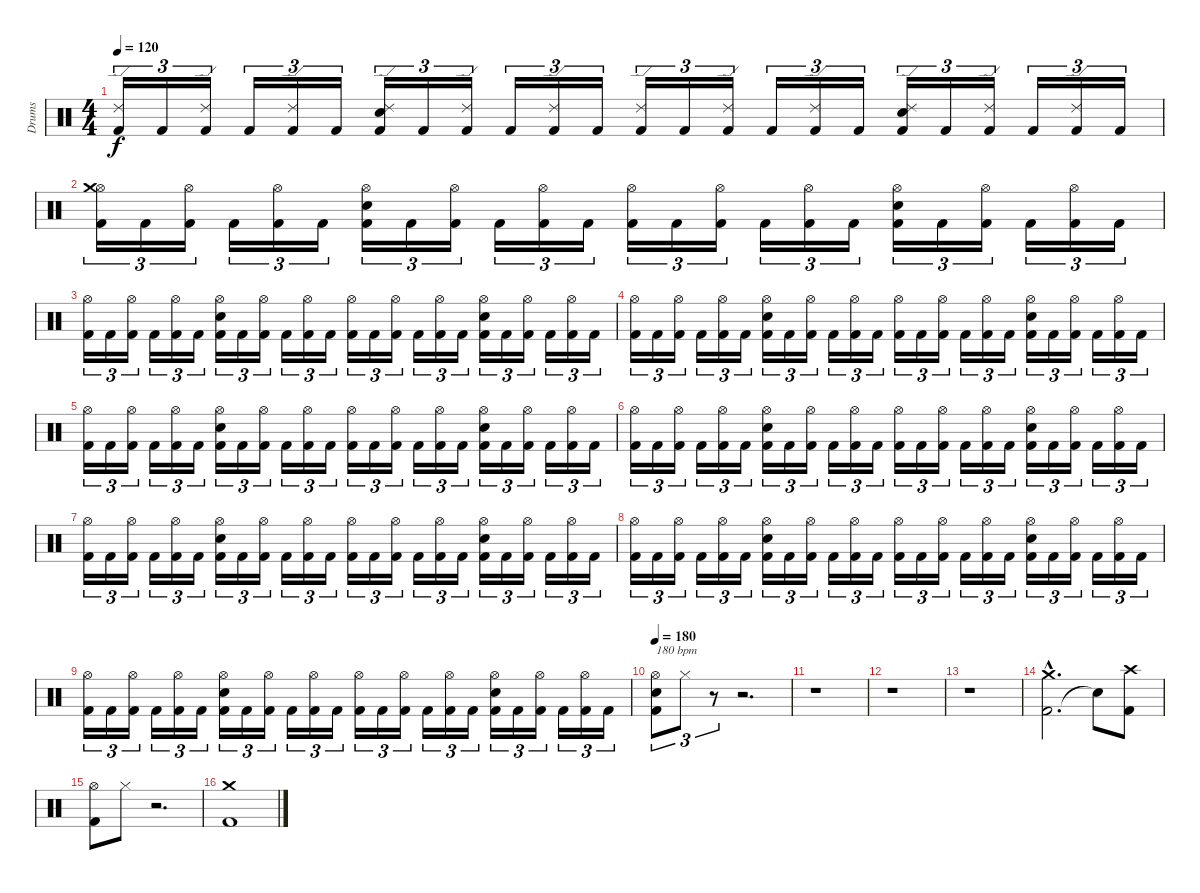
\track ("Drums" "Drums") {instrument percussion}
\staff {score}
\articulation defaults
\ts (4 4)
\tempo 120
\clef neutral
\ks c
("Kick (hit) 2" "Ride (edge) 2").16{tu (3 2) dy f} "Kick (hit) 2".16{tu (3 2)} ("Kick (hit) 2" "Ride (edge) 2").16{tu (3 2)} "Kick (hit) 2".16{tu (3 2)} ("Kick (hit) 2" "Ride (edge) 2").16{tu (3 2)} "Kick (hit) 2".16{tu (3 2)} ("Kick (hit) 2" "Snare (hit) 2" "Ride (edge) 2").16{tu (3 2)} "Kick (hit) 2".16{tu (3 2)} ("Kick (hit) 2" "Ride (edge) 2").16{tu (3 2)} "Kick (hit) 2".16{tu (3 2)} ("Kick (hit) 2" "Ride (edge) 2").16{tu (3 2)} "Kick (hit) 2".16{tu (3 2)} ("Kick (hit) 2" "Ride (edge) 2").16{tu (3 2)} "Kick (hit) 2".16{tu (3 2)} ("Kick (hit) 2" "Ride (edge) 2").16{tu (3 2)} "Kick (hit) 2".16{tu (3 2)} ("Kick (hit) 2" "Ride (edge) 2").16{tu (3 2)} "Kick (hit) 2".16{tu (3 2)} ("Kick (hit) 2" "Snare (hit) 2" "Ride (edge) 2").16{tu (3 2)} "Kick (hit) 2".16{tu (3 2)} ("Kick (hit) 2" "Ride (edge) 2").16{tu (3 2)} "Kick (hit) 2".16{tu (3 2)} ("Kick (hit) 2" "Ride (edge) 2").16{tu (3 2)} "Kick (hit) 2".16{tu (3 2)} |
("Kick (hit) 2" "Hi-Hat (open)" "Crash medium (hit)").16{tu (3 2)} "Kick (hit) 2".16{tu (3 2)} ("Kick (hit) 2" "Hi-Hat (open)").16{tu (3 2)} "Kick (hit) 2".16{tu (3 2)} ("Kick (hit) 2" "Hi-Hat (open)").16{tu (3 2)} "Kick (hit) 2".16{tu (3 2)} ("Kick (hit) 2" "Snare (hit) 2" "Hi-Hat (open)").16{tu (3 2)} "Kick (hit) 2".16{tu (3 2)} ("Kick (hit) 2" "Hi-Hat (open)").16{tu (3 2)} "Kick (hit) 2".16{tu (3 2)} ("Kick (hit) 2" "Hi-Hat (open)").16{tu (3 2)} "Kick (hit) 2".16{tu (3 2)} ("Kick (hit) 2" "Hi-Hat (open)").16{tu (3 2)} "Kick (hit) 2".16{tu (3 2)} ("Kick (hit) 2" "Hi-Hat (open)").16{tu (3 2)} "Kick (hit) 2".16{tu (3 2)} ("Kick (hit) 2" "Hi-Hat (open)").16{tu (3 2)} "Kick (hit) 2".16{tu (3 2)} ("Kick (hit) 2" "Snare (hit) 2" "Hi-Hat (open)").16{tu (3 2)} "Kick (hit) 2".16{tu (3 2)} ("Kick (hit) 2" "Hi-Hat (open)").16{tu (3 2)} "Kick (hit) 2".16{tu (3 2)} ("Kick (hit) 2" "Hi-Hat (open)").16{tu (3 2)} "Kick (hit) 2".16{tu (3 2)} |
("Kick (hit) 2" "Hi-Hat (open)").16{tu (3 2)} "Kick (hit) 2".16{tu (3 2)} ("Kick (hit) 2" "Hi-Hat (open)").16{tu (3 2)} "Kick (hit) 2".16{tu (3 2)} ("Kick (hit) 2" "Hi-Hat (open)").16{tu (3 2)} "Kick (hit) 2".16{tu (3 2)} ("Kick (hit) 2" "Snare (hit) 2" "Hi-Hat (open)").16{tu (3 2)} "Kick (hit) 2".16{tu (3 2)} ("Kick (hit) 2" "Hi-Hat (open)").16{tu (3 2)} "Kick (hit) 2".16{tu (3 2)} ("Kick (hit) 2" "Hi-Hat (open)").16{tu (3 2)} "Kick (hit) 2".16{tu (3 2)} ("Kick (hit) 2" "Hi-Hat (open)").16{tu (3 2)} "Kick (hit) 2".16{tu (3 2)} ("Kick (hit) 2" "Hi-Hat (open)").16{tu (3 2)} "Kick (hit) 2".16{tu (3 2)} ("Kick (hit) 2" "Hi-Hat (open)").16{tu (3 2)} "Kick (hit) 2".16{tu (3 2)} ("Kick (hit) 2" "Snare (hit) 2" "Hi-Hat (open)").16{tu (3 2)} "Kick (hit) 2".16{tu (3 2)} ("Kick (hit) 2" "Hi-Hat (open)").16{tu (3 2)} "Kick (hit) 2".16{tu (3 2)} ("Kick (hit) 2" "Hi-Hat (open)").16{tu (3 2)} "Kick (hit) 2".16{tu (3 2)} |
("Kick (hit) 2" "Hi-Hat (open)").16{tu (3 2)} "Kick (hit) 2".16{tu (3 2)} ("Kick (hit) 2" "Hi-Hat (open)").16{tu (3 2)} "Kick (hit) 2".16{tu (3 2)} ("Kick (hit) 2" "Hi-Hat (open)").16{tu (3 2)} "Kick (hit) 2".16{tu (3 2)} ("Kick (hit) 2" "Snare (hit) 2" "Hi-Hat (open)").16{tu (3 2)} "Kick (hit) 2".16{tu (3 2)} ("Kick (hit) 2" "Hi-Hat (open)").16{tu (3 2)} "Kick (hit) 2".16{tu (3 2)} ("Kick (hit) 2" "Hi-Hat (open)").16{tu (3 2)} "Kick (hit) 2".16{tu (3 2)} ("Kick (hit) 2" "Hi-Hat (open)").16{tu (3 2)} "Kick (hit) 2".16{tu (3 2)} ("Kick (hit) 2" "Hi-Hat (open)").16{tu (3 2)} "Kick (hit) 2".16{tu (3 2)} ("Kick (hit) 2" "Hi-Hat (open)").16{tu (3 2)} "Kick (hit) 2".16{tu (3 2)} ("Kick (hit) 2" "Snare (hit) 2" "Hi-Hat (open)").16{tu (3 2)} "Kick (hit) 2".16{tu (3 2)} ("Kick (hit) 2" "Hi-Hat (open)").16{tu (3 2)} "Kick (hit) 2".16{tu (3 2)} ("Kick (hit) 2" "Hi-Hat (open)").16{tu (3 2)} "Kick (hit) 2".16{tu (3 2)} |
("Kick (hit) 2" "Hi-Hat (open)").16{tu (3 2)} "Kick (hit) 2".16{tu (3 2)} ("Kick (hit) 2" "Hi-Hat (open)").16{tu (3 2)} "Kick (hit) 2".16{tu (3 2)} ("Kick (hit) 2" "Hi-Hat (open)").16{tu (3 2)} "Kick (hit) 2".16{tu (3 2)} ("Kick (hit) 2" "Snare (hit) 2" "Hi-Hat (open)").16{tu (3 2)} "Kick (hit) 2".16{tu (3 2)} ("Kick (hit) 2" "Hi-Hat (open)").16{tu (3 2)} "Kick (hit) 2".16{tu (3 2)} ("Kick (hit) 2" "Hi-Hat (open)").16{tu (3 2)} "Kick (hit) 2".16{tu (3 2)} ("Kick (hit) 2" "Hi-Hat (open)").16{tu (3 2)} "Kick (hit) 2".16{tu (3 2)} ("Kick (hit) 2" "Hi-Hat (open)").16{tu (3 2)} "Kick (hit) 2".16{tu (3 2)} ("Kick (hit) 2" "Hi-Hat (open)").16{tu (3 2)} "Kick (hit) 2".16{tu (3 2)} ("Kick (hit) 2" "Snare (hit) 2" "Hi-Hat (open)").16{tu (3 2)} "Kick (hit) 2".16{tu (3 2)} ("Kick (hit) 2" "Hi-Hat (open)").16{tu (3 2)} "Kick (hit) 2".16{tu (3 2)} ("Kick (hit) 2" "Hi-Hat (open)").16{tu (3 2)} "Kick (hit) 2".16{tu (3 2)} |
("Kick (hit) 2" "Hi-Hat (open)").16{tu (3 2)} "Kick (hit) 2".16{tu (3 2)} ("Kick (hit) 2" "Hi-Hat (open)").16{tu (3 2)} "Kick (hit) 2".16{tu (3 2)} ("Kick (hit) 2" "Hi-Hat (open)").16{tu (3 2)} "Kick (hit) 2".16{tu (3 2)} ("Kick (hit) 2" "Snare (hit) 2" "Hi-Hat (open)").16{tu (3 2)} "Kick (hit) 2".16{tu (3 2)} ("Kick (hit) 2" "Hi-Hat (open)").16{tu (3 2)} "Kick (hit) 2".16{tu (3 2)} ("Kick (hit) 2" "Hi-Hat (open)").16{tu (3 2)} "Kick (hit) 2".16{tu (3 2)} ("Kick (hit) 2" "Hi-Hat (open)").16{tu (3 2)} "Kick (hit) 2".16{tu (3 2)} ("Kick (hit) 2" "Hi-Hat (open)").16{tu (3 2)} "Kick (hit) 2".16{tu (3 2)} ("Kick (hit) 2" "Hi-Hat (open)").16{tu (3 2)} "Kick (hit) 2".16{tu (3 2)} ("Kick (hit) 2" "Snare (hit) 2" "Hi-Hat (open)").16{tu (3 2)} "Kick (hit) 2".16{tu (3 2)} ("Kick (hit) 2" "Hi-Hat (open)").16{tu (3 2)} "Kick (hit) 2".16{tu (3 2)} ("Kick (hit) 2" "Hi-Hat (open)").16{tu (3 2)} "Kick (hit) 2".16{tu (3 2)} |
("Kick (hit) 2" "Hi-Hat (open)").16{tu (3 2)} "Kick (hit) 2".16{tu (3 2)} ("Kick (hit) 2" "Hi-Hat (open)").16{tu (3 2)} "Kick (hit) 2".16{tu (3 2)} ("Kick (hit) 2" "Hi-Hat (open)").16{tu (3 2)} "Kick (hit) 2".16{tu (3 2)} ("Kick (hit) 2" "Snare (hit) 2" "Hi-Hat (open)").16{tu (3 2)} "Kick (hit) 2".16{tu (3 2)} ("Kick (hit) 2" "Hi-Hat (open)").16{tu (3 2)} "Kick (hit) 2".16{tu (3 2)} ("Kick (hit) 2" "Hi-Hat (open)").16{tu (3 2)} "Kick (hit) 2".16{tu (3 2)} ("Kick (hit) 2" "Hi-Hat (open)").16{tu (3 2)} "Kick (hit) 2".16{tu (3 2)} ("Kick (hit) 2" "Hi-Hat (open)").16{tu (3 2)} "Kick (hit) 2".16{tu (3 2)} ("Kick (hit) 2" "Hi-Hat (open)").16{tu (3 2)} "Kick (hit) 2".16{tu (3 2)} ("Kick (hit) 2" "Snare (hit) 2" "Hi-Hat (open)").16{tu (3 2)} "Kick (hit) 2".16{tu (3 2)} ("Kick (hit) 2" "Hi-Hat (open)").16{tu (3 2)} "Kick (hit) 2".16{tu (3 2)} ("Kick (hit) 2" "Hi-Hat (open)").16{tu (3 2)} "Kick (hit) 2".16{tu (3 2)} |
("Kick (hit) 2" "Hi-Hat (open)").16{tu (3 2)} "Kick (hit) 2".16{tu (3 2)} ("Kick (hit) 2" "Hi-Hat (open)").16{tu (3 2)} "Kick (hit) 2".16{tu (3 2)} ("Kick (hit) 2" "Hi-Hat (open)").16{tu (3 2)} "Kick (hit) 2".16{tu (3 2)} ("Kick (hit) 2" "Snare (hit) 2" "Hi-Hat (open)").16{tu (3 2)} "Kick (hit) 2".16{tu (3 2)} ("Kick (hit) 2" "Hi-Hat (open)").16{tu (3 2)} "Kick (hit) 2".16{tu (3 2)} ("Kick (hit) 2" "Hi-Hat (open)").16{tu (3 2)} "Kick (hit) 2".16{tu (3 2)} ("Kick (hit) 2" "Hi-Hat (open)").16{tu (3 2)} "Kick (hit) 2".16{tu (3 2)} ("Kick (hit) 2" "Hi-Hat (open)").16{tu (3 2)} "Kick (hit) 2".16{tu (3 2)} ("Kick (hit) 2" "Hi-Hat (open)").16{tu (3 2)} "Kick (hit) 2".16{tu (3 2)} ("Kick (hit) 2" "Snare (hit) 2" "Hi-Hat (open)").16{tu (3 2)} "Kick (hit) 2".16{tu (3 2)} ("Kick (hit) 2" "Hi-Hat (open)").16{tu (3 2)} "Kick (hit) 2".16{tu (3 2)} ("Kick (hit) 2" "Hi-Hat (open)").16{tu (3 2)} "Kick (hit) 2".16{tu (3 2)} |
("Kick (hit) 2" "Hi-Hat (open)").16{tu (3 2)} "Kick (hit) 2".16{tu (3 2)} ("Kick (hit) 2" "Hi-Hat (open)").16{tu (3 2)} "Kick (hit) 2".16{tu (3 2)} ("Kick (hit) 2" "Hi-Hat (open)").16{tu (3 2)} "Kick (hit) 2".16{tu (3 2)} ("Kick (hit) 2" "Snare (hit) 2" "Hi-Hat (open)").16{tu (3 2)} "Kick (hit) 2".16{tu (3 2)} ("Kick (hit) 2" "Hi-Hat (open)").16{tu (3 2)} "Kick (hit) 2".16{tu (3 2)} ("Kick (hit) 2" "Hi-Hat (open)").16{tu (3 2)} "Kick (hit) 2".16{tu (3 2)} ("Kick (hit) 2" "Hi-Hat (open)").16{tu (3 2)} "Kick (hit) 2".16{tu (3 2)} ("Kick (hit) 2" "Hi-Hat (open)").16{tu (3 2)} "Kick (hit) 2".16{tu (3 2)} ("Kick (hit) 2" "Hi-Hat (open)").16{tu (3 2)} "Kick (hit) 2".16{tu (3 2)} ("Kick (hit) 2" "Snare (hit) 2" "Hi-Hat (open)").16{tu (3 2)} "Kick (hit) 2".16{tu (3 2)} ("Kick (hit) 2" "Hi-Hat (open)").16{tu (3 2)} "Kick (hit) 2".16{tu (3 2)} ("Kick (hit) 2" "Hi-Hat (open)").16{tu (3 2)} "Kick (hit) 2".16{tu (3 2)} |
\tempo 180
("Kick (hit) 2" "Snare (hit) 2" "Hi-Hat (open)").8{tu (3 2) txt "180 bpm"} "Hi-Hat (closed)".8{tu (3 2)} r.8{tu (3 2)} r.2{d} |
r.1 |
r.1 |
r.1 |
("Kick (hit) 2"{hac} "Crash medium (hit)"{hac}).2{d} "Snare (hit)"{t}.8 ("Kick (hit) 2" "Crash high (hit)").8 |
("Kick (hit) 2" "Hi-Hat (open)").8 "Hi-Hat (closed)".8 r.2{d} |
("Kick (hit) 2" "Crash medium (hit)").1
